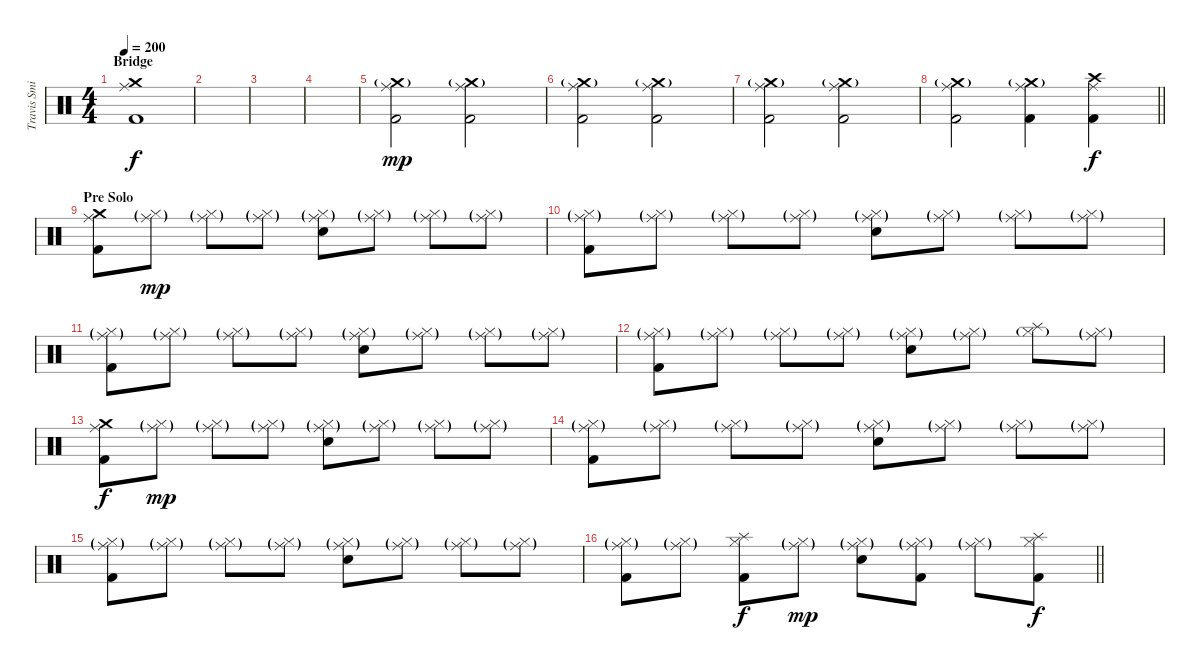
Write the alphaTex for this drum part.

\track ("Travis Smith" "Travis Smi") {instrument percussion}
\staff {score}
\articulation defaults
\ts (4 4)
\section ("" "Bridge")
\tempo 200
\clef neutral
\ks c
("Ride (middle)" "Crash medium (hit)" "Kick (hit) 2").1{dy f} |
|
|
|
("Ride (middle)" "Crash medium (hit)"{g} "Kick (hit) 2").2{dy mp} ("Ride (middle)" "Crash medium (hit)"{g} "Kick (hit) 2").2 |
("Ride (middle)" "Crash medium (hit)"{g} "Kick (hit) 2").2 ("Ride (middle)" "Crash medium (hit)"{g} "Kick (hit) 2").2 |
("Ride (middle)" "Crash medium (hit)"{g} "Kick (hit) 2").2 ("Ride (middle)" "Crash medium (hit)"{g} "Kick (hit) 2").2 |
\barLineRight lightlight
("Ride (middle)" "Crash medium (hit)"{g} "Kick (hit) 2").2 ("Ride (middle)" "Crash medium (hit)"{g} "Kick (hit) 2").4 ("Ride (middle)" "Crash high (hit)" "Kick (hit) 2").4{dy f} |
\section ("" "Pre Solo")
("Crash medium (hit)" "Ride (middle)" "Kick (hit) 2").8 ("Ride (middle)"{g} "Hi-Hat (closed)"{g}).8{dy mp} ("Ride (middle)"{g} "Hi-Hat (closed)"{g}).8 ("Ride (middle)"{g} "Hi-Hat (closed)"{g}).8 ("Ride (middle)"{g} "Hi-Hat (closed)"{g} "Electric Snare (hit)").8 ("Ride (middle)"{g} "Hi-Hat (closed)"{g}).8 ("Ride (middle)"{g} "Hi-Hat (closed)"{g}).8 ("Ride (middle)"{g} "Hi-Hat (closed)"{g}).8 |
("Ride (middle)"{g} "Hi-Hat (closed)"{g} "Kick (hit) 2").8 ("Ride (middle)"{g} "Hi-Hat (closed)"{g}).8 ("Ride (middle)"{g} "Hi-Hat (closed)"{g}).8 ("Ride (middle)"{g} "Hi-Hat (closed)"{g}).8 ("Ride (middle)"{g} "Hi-Hat (closed)"{g} "Electric Snare (hit)").8 ("Ride (middle)"{g} "Hi-Hat (closed)"{g}).8 ("Ride (middle)"{g} "Hi-Hat (closed)"{g}).8 ("Ride (middle)"{g} "Hi-Hat (closed)"{g}).8 |
("Ride (middle)"{g} "Hi-Hat (closed)"{g} "Kick (hit) 2").8 ("Ride (middle)"{g} "Hi-Hat (closed)"{g}).8 ("Ride (middle)"{g} "Hi-Hat (closed)"{g}).8 ("Ride (middle)"{g} "Hi-Hat (closed)"{g}).8 ("Ride (middle)"{g} "Hi-Hat (closed)"{g} "Electric Snare (hit)").8 ("Ride (middle)"{g} "Hi-Hat (closed)"{g}).8 ("Ride (middle)"{g} "Hi-Hat (closed)"{g}).8 ("Ride (middle)"{g} "Hi-Hat (closed)"{g}).8 |
("Ride (middle)"{g} "Hi-Hat (closed)"{g} "Kick (hit) 2").8 ("Ride (middle)"{g} "Hi-Hat (closed)"{g}).8 ("Ride (middle)"{g} "Hi-Hat (closed)"{g}).8 ("Ride (middle)"{g} "Hi-Hat (closed)"{g}).8 ("Ride (middle)"{g} "Hi-Hat (closed)"{g} "Electric Snare (hit)").8 ("Ride (middle)"{g} "Hi-Hat (closed)"{g}).8 ("Splash (hit)" "Hi-Hat (closed)"{g}).8 ("Ride (middle)"{g} "Hi-Hat (closed)"{g}).8 |
("Crash medium (hit)" "Ride (middle)" "Kick (hit) 2").8{dy f} ("Ride (middle)"{g} "Hi-Hat (closed)"{g}).8{dy mp} ("Ride (middle)"{g} "Hi-Hat (closed)"{g}).8 ("Ride (middle)"{g} "Hi-Hat (closed)"{g}).8 ("Ride (middle)"{g} "Hi-Hat (closed)"{g} "Electric Snare (hit)").8 ("Ride (middle)"{g} "Hi-Hat (closed)"{g}).8 ("Ride (middle)"{g} "Hi-Hat (closed)"{g}).8 ("Ride (middle)"{g} "Hi-Hat (closed)"{g}).8 |
("Ride (middle)"{g} "Hi-Hat (closed)"{g} "Kick (hit) 2").8 ("Ride (middle)"{g} "Hi-Hat (closed)"{g}).8 ("Ride (middle)"{g} "Hi-Hat (closed)"{g}).8 ("Ride (middle)"{g} "Hi-Hat (closed)"{g}).8 ("Ride (middle)"{g} "Hi-Hat (closed)"{g} "Electric Snare (hit)").8 ("Ride (middle)"{g} "Hi-Hat (closed)"{g}).8 ("Ride (middle)"{g} "Hi-Hat (closed)"{g}).8 ("Ride (middle)"{g} "Hi-Hat (closed)"{g}).8 |
("Ride (middle)"{g} "Hi-Hat (closed)"{g} "Kick (hit) 2").8 ("Ride (middle)"{g} "Hi-Hat (closed)"{g}).8 ("Ride (middle)"{g} "Hi-Hat (closed)"{g}).8 ("Ride (middle)"{g} "Hi-Hat (closed)"{g}).8 ("Ride (middle)"{g} "Hi-Hat (closed)"{g} "Electric Snare (hit)").8 ("Ride (middle)"{g} "Hi-Hat (closed)"{g}).8 ("Ride (middle)"{g} "Hi-Hat (closed)"{g}).8 ("Ride (middle)"{g} "Hi-Hat (closed)"{g}).8 |
\barLineRight lightlight
("Ride (middle)"{g} "Hi-Hat (closed)"{g} "Kick (hit) 2").8 ("Ride (middle)"{g} "Hi-Hat (closed)"{g}).8 ("Splash (hit)" "Hi-Hat (closed)" "Kick (hit) 2").8{dy f} ("Ride (middle)"{g} "Hi-Hat (closed)"{g}).8{dy mp} ("Ride (middle)"{g} "Hi-Hat (closed)"{g} "Electric Snare (hit)").8 ("Ride (middle)"{g} "Hi-Hat (closed)"{g} "Kick (hit) 2").8 ("Ride (middle)"{g} "Hi-Hat (closed)"{g}).8 ("Splash (hit)" "Hi-Hat (closed)" "Kick (hit) 2").8{dy f}
